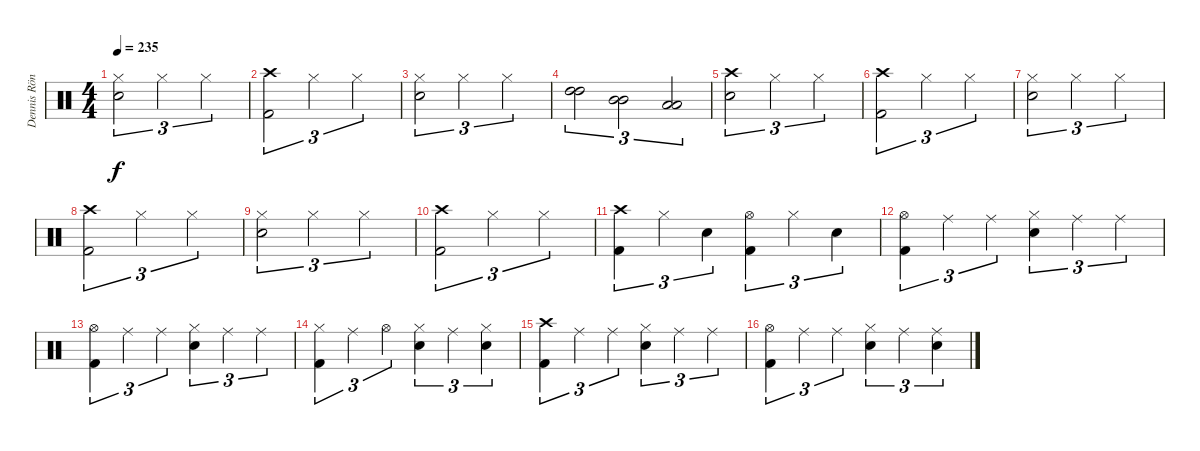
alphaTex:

\track ("Dennis Röndum" "Dennis Rön") {instrument percussion}
\staff {score}
\articulation defaults
\ts (4 4)
\tempo 235
\clef neutral
\ks c
("Hi-Hat (closed)" "Snare (hit) 2").2{tu (3 2) dy f} "Hi-Hat (closed)".2{tu (3 2)} "Hi-Hat (closed)".2{tu (3 2)} |
("Crash high (hit)" "Kick (hit) 2").2{tu (3 2)} "Hi-Hat (closed)".2{tu (3 2)} "Hi-Hat (closed)".2{tu (3 2)} |
("Hi-Hat (closed)" "Snare (hit) 2").2{tu (3 2)} "Hi-Hat (closed)".2{tu (3 2)} "Hi-Hat (closed)".2{tu (3 2)} |
("High Tom (hit)" "High Tom (hit)").2{tu (3 2)} ("Mid Tom (hit)" "Mid Tom (hit)").2{tu (3 2)} ("Low Floor Tom (hit)" "Low Floor Tom (hit)").2{tu (3 2)} |
("Crash high (hit)" "Snare (hit) 2").2{tu (3 2)} "Hi-Hat (closed)".2{tu (3 2)} "Hi-Hat (closed)".2{tu (3 2)} |
("Crash high (hit)" "Kick (hit) 2").2{tu (3 2)} "Hi-Hat (closed)".2{tu (3 2)} "Hi-Hat (closed)".2{tu (3 2)} |
("Hi-Hat (closed)" "Snare (hit) 2").2{tu (3 2)} "Hi-Hat (closed)".2{tu (3 2)} "Hi-Hat (closed)".2{tu (3 2)} |
("Crash high (hit)" "Kick (hit) 2").2{tu (3 2)} "Hi-Hat (closed)".2{tu (3 2)} "Hi-Hat (closed)".2{tu (3 2)} |
("Hi-Hat (closed)" "Snare (hit) 2").2{tu (3 2)} "Hi-Hat (closed)".2{tu (3 2)} "Hi-Hat (closed)".2{tu (3 2)} |
("Crash high (hit)" "Kick (hit) 2").2{tu (3 2)} "Hi-Hat (closed)".2{tu (3 2)} "Hi-Hat (closed)".2{tu (3 2)} |
("Crash high (hit)" "Kick (hit) 2").4{tu (3 2)} "Hi-Hat (closed)".4{tu (3 2)} "Snare (hit) 2".4{tu (3 2)} ("Hi-Hat (open)" "Kick (hit) 2").4{tu (3 2)} "Hi-Hat (closed)".4{tu (3 2)} "Snare (hit) 2".4{tu (3 2)} |
("Hi-Hat (open)" "Kick (hit) 2").4{tu (3 2)} "Ride (middle)".4{tu (3 2)} "Ride (middle)".4{tu (3 2)} ("Hi-Hat (closed)" "Snare (hit) 2").4{tu (3 2)} "Ride (middle)".4{tu (3 2)} "Ride (middle)".4{tu (3 2)} |
("Hi-Hat (open)" "Kick (hit) 2").4{tu (3 2)} "Ride (middle)".4{tu (3 2)} "Ride (middle)".4{tu (3 2)} ("Hi-Hat (closed)" "Snare (hit) 2").4{tu (3 2)} "Ride (middle)".4{tu (3 2)} "Ride (middle)".4{tu (3 2)} |
("Hi-Hat (closed)" "Kick (hit) 2").4{tu (3 2)} "Ride (middle)".4{tu (3 2)} "Hi-Hat (open)".4{tu (3 2)} ("Hi-Hat (closed)" "Snare (hit) 2").4{tu (3 2)} "Ride (middle)".4{tu (3 2)} ("Hi-Hat (closed)" "Snare (hit) 2").4{tu (3 2)} |
("Crash high (hit)" "Kick (hit) 2").4{tu (3 2)} "Ride (middle)".4{tu (3 2)} "Ride (middle)".4{tu (3 2)} ("Hi-Hat (closed)" "Snare (hit) 2").4{tu (3 2)} "Ride (middle)".4{tu (3 2)} "Ride (middle)".4{tu (3 2)} |
("Hi-Hat (open)" "Kick (hit) 2").4{tu (3 2)} "Ride (middle)".4{tu (3 2)} "Ride (middle)".4{tu (3 2)} ("Hi-Hat (closed)" "Snare (hit) 2").4{tu (3 2)} "Ride (middle)".4{tu (3 2)} ("Snare (hit) 2" "Ride (middle)").4{tu (3 2)}
